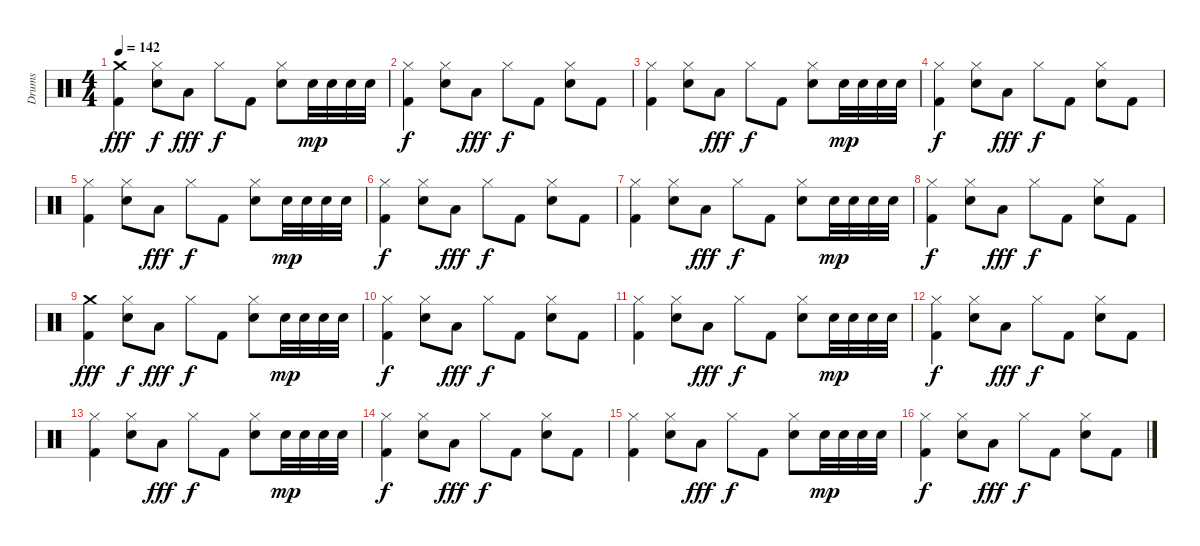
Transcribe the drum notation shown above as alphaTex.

\track ("Drums" "Drums") {instrument percussion}
\staff {score}
\articulation defaults
\ts (4 4)
\tempo 142
\clef neutral
\ks c
("Crash medium (hit)" "Kick (hit) 2").4{dy fff volume 11} ("Hi-Hat (closed)" "Snare (hit) 2").8{dy f} "Low Tom (hit)".8{dy fff} "Hi-Hat (closed)".8{dy f} "Kick (hit) 2".8 ("Hi-Hat (closed)" "Snare (hit) 2").8 "Snare (hit) 2".32{dy mp} "Snare (hit) 2".32 "Snare (hit) 2".32 "Snare (hit) 2".32 |
("Hi-Hat (closed)" "Kick (hit) 2").4{dy f volume 11} ("Hi-Hat (closed)" "Snare (hit) 2").8 "Low Tom (hit)".8{dy fff} "Hi-Hat (closed)".8{dy f} "Kick (hit) 2".8 ("Hi-Hat (closed)" "Snare (hit) 2").8 "Kick (hit) 2".8 |
("Hi-Hat (closed)" "Kick (hit) 2").4{volume 11} ("Hi-Hat (closed)" "Snare (hit) 2").8 "Low Tom (hit)".8{dy fff} "Hi-Hat (closed)".8{dy f} "Kick (hit) 2".8 ("Hi-Hat (closed)" "Snare (hit) 2").8 "Snare (hit) 2".32{dy mp} "Snare (hit) 2".32 "Snare (hit) 2".32 "Snare (hit) 2".32 |
("Hi-Hat (closed)" "Kick (hit) 2").4{dy f volume 11} ("Hi-Hat (closed)" "Snare (hit) 2").8 "Low Tom (hit)".8{dy fff} "Hi-Hat (closed)".8{dy f} "Kick (hit) 2".8 ("Hi-Hat (closed)" "Snare (hit) 2").8 "Kick (hit) 2".8 |
("Hi-Hat (closed)" "Kick (hit) 2").4{volume 11} ("Hi-Hat (closed)" "Snare (hit) 2").8 "Low Tom (hit)".8{dy fff} "Hi-Hat (closed)".8{dy f} "Kick (hit) 2".8 ("Hi-Hat (closed)" "Snare (hit) 2").8 "Snare (hit) 2".32{dy mp} "Snare (hit) 2".32 "Snare (hit) 2".32 "Snare (hit) 2".32 |
("Hi-Hat (closed)" "Kick (hit) 2").4{dy f volume 11} ("Hi-Hat (closed)" "Snare (hit) 2").8 "Low Tom (hit)".8{dy fff} "Hi-Hat (closed)".8{dy f} "Kick (hit) 2".8 ("Hi-Hat (closed)" "Snare (hit) 2").8 "Kick (hit) 2".8 |
("Hi-Hat (closed)" "Kick (hit) 2").4{volume 11} ("Hi-Hat (closed)" "Snare (hit) 2").8 "Low Tom (hit)".8{dy fff} "Hi-Hat (closed)".8{dy f} "Kick (hit) 2".8 ("Hi-Hat (closed)" "Snare (hit) 2").8 "Snare (hit) 2".32{dy mp} "Snare (hit) 2".32 "Snare (hit) 2".32 "Snare (hit) 2".32 |
("Hi-Hat (closed)" "Kick (hit) 2").4{dy f volume 11} ("Hi-Hat (closed)" "Snare (hit) 2").8 "Low Tom (hit)".8{dy fff} "Hi-Hat (closed)".8{dy f} "Kick (hit) 2".8 ("Hi-Hat (closed)" "Snare (hit) 2").8 "Kick (hit) 2".8 |
("Crash medium (hit)" "Kick (hit) 2").4{dy fff volume 11} ("Hi-Hat (closed)" "Snare (hit) 2").8{dy f} "Low Tom (hit)".8{dy fff} "Hi-Hat (closed)".8{dy f} "Kick (hit) 2".8 ("Hi-Hat (closed)" "Snare (hit) 2").8 "Snare (hit) 2".32{dy mp} "Snare (hit) 2".32 "Snare (hit) 2".32 "Snare (hit) 2".32 |
("Hi-Hat (closed)" "Kick (hit) 2").4{dy f volume 11} ("Hi-Hat (closed)" "Snare (hit) 2").8 "Low Tom (hit)".8{dy fff} "Hi-Hat (closed)".8{dy f} "Kick (hit) 2".8 ("Hi-Hat (closed)" "Snare (hit) 2").8 "Kick (hit) 2".8 |
("Hi-Hat (closed)" "Kick (hit) 2").4{volume 11} ("Hi-Hat (closed)" "Snare (hit) 2").8 "Low Tom (hit)".8{dy fff} "Hi-Hat (closed)".8{dy f} "Kick (hit) 2".8 ("Hi-Hat (closed)" "Snare (hit) 2").8 "Snare (hit) 2".32{dy mp} "Snare (hit) 2".32 "Snare (hit) 2".32 "Snare (hit) 2".32 |
("Hi-Hat (closed)" "Kick (hit) 2").4{dy f volume 11} ("Hi-Hat (closed)" "Snare (hit) 2").8 "Low Tom (hit)".8{dy fff} "Hi-Hat (closed)".8{dy f} "Kick (hit) 2".8 ("Hi-Hat (closed)" "Snare (hit) 2").8 "Kick (hit) 2".8 |
("Hi-Hat (closed)" "Kick (hit) 2").4{volume 11} ("Hi-Hat (closed)" "Snare (hit) 2").8 "Low Tom (hit)".8{dy fff} "Hi-Hat (closed)".8{dy f} "Kick (hit) 2".8 ("Hi-Hat (closed)" "Snare (hit) 2").8 "Snare (hit) 2".32{dy mp} "Snare (hit) 2".32 "Snare (hit) 2".32 "Snare (hit) 2".32 |
("Hi-Hat (closed)" "Kick (hit) 2").4{dy f volume 11} ("Hi-Hat (closed)" "Snare (hit) 2").8 "Low Tom (hit)".8{dy fff} "Hi-Hat (closed)".8{dy f} "Kick (hit) 2".8 ("Hi-Hat (closed)" "Snare (hit) 2").8 "Kick (hit) 2".8 |
("Hi-Hat (closed)" "Kick (hit) 2").4{volume 11} ("Hi-Hat (closed)" "Snare (hit) 2").8 "Low Tom (hit)".8{dy fff} "Hi-Hat (closed)".8{dy f} "Kick (hit) 2".8 ("Hi-Hat (closed)" "Snare (hit) 2").8 "Snare (hit) 2".32{dy mp} "Snare (hit) 2".32 "Snare (hit) 2".32 "Snare (hit) 2".32 |
("Hi-Hat (closed)" "Kick (hit) 2").4{dy f volume 11} ("Hi-Hat (closed)" "Snare (hit) 2").8 "Low Tom (hit)".8{dy fff} "Hi-Hat (closed)".8{dy f} "Kick (hit) 2".8 ("Hi-Hat (closed)" "Snare (hit) 2").8 "Kick (hit) 2".8
